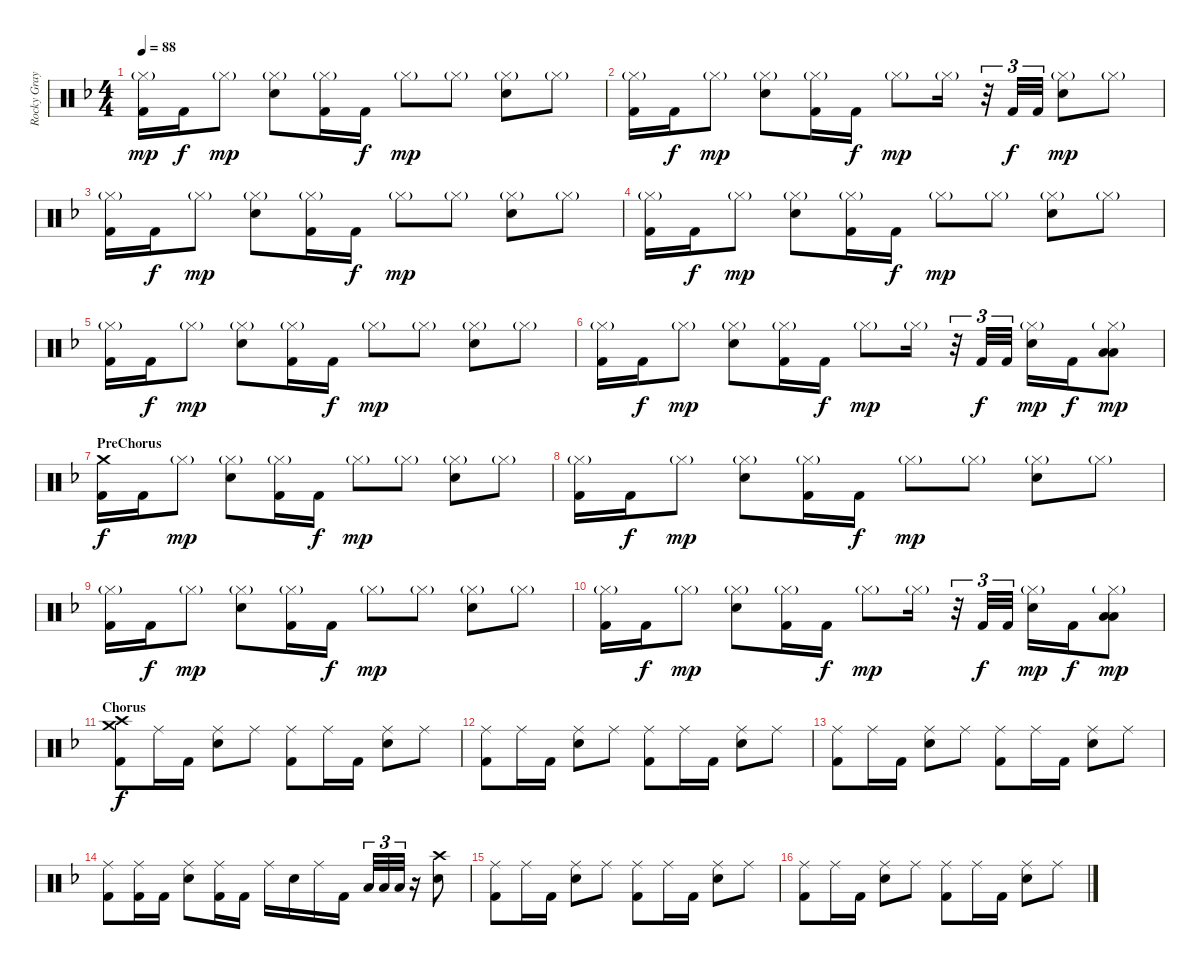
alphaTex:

\track ("Rocky Gray" "Rocky Gray") {instrument percussion}
\staff {score}
\articulation defaults
\ts (4 4)
\tempo 88
\clef neutral
\ks f
("Hi-Hat (closed)"{g} "Kick (hit) 2").16{dy mp} "Kick (hit) 2".16{dy f} "Hi-Hat (closed)"{g}.8{dy mp} ("Hi-Hat (closed)"{g} "Snare (hit) 2").8 ("Hi-Hat (closed)"{g} "Kick (hit) 2").16 "Kick (hit) 2".16{dy f} "Hi-Hat (closed)"{g}.8{dy mp} "Hi-Hat (closed)"{g}.8 ("Hi-Hat (closed)"{g} "Snare (hit) 2").8 "Hi-Hat (closed)"{g}.8 |
("Hi-Hat (closed)"{g} "Kick (hit) 2").16 "Kick (hit) 2".16{dy f} "Hi-Hat (closed)"{g}.8{dy mp} ("Hi-Hat (closed)"{g} "Snare (hit) 2").8 ("Hi-Hat (closed)"{g} "Kick (hit) 2").16 "Kick (hit) 2".16{dy f} "Hi-Hat (closed)"{g}.8{dy mp} "Hi-Hat (closed)"{g}.16 r.32{tu (3 2)} "Kick (hit) 2".32{tu (3 2) dy f} "Kick (hit) 2".32{tu (3 2)} ("Hi-Hat (closed)"{g} "Snare (hit) 2").8{dy mp} "Hi-Hat (closed)"{g}.8 |
("Hi-Hat (closed)"{g} "Kick (hit) 2").16 "Kick (hit) 2".16{dy f} "Hi-Hat (closed)"{g}.8{dy mp} ("Hi-Hat (closed)"{g} "Snare (hit) 2").8 ("Hi-Hat (closed)"{g} "Kick (hit) 2").16 "Kick (hit) 2".16{dy f} "Hi-Hat (closed)"{g}.8{dy mp} "Hi-Hat (closed)"{g}.8 ("Hi-Hat (closed)"{g} "Snare (hit) 2").8 "Hi-Hat (closed)"{g}.8 |
("Hi-Hat (closed)"{g} "Kick (hit) 2").16 "Kick (hit) 2".16{dy f} "Hi-Hat (closed)"{g}.8{dy mp} ("Hi-Hat (closed)"{g} "Snare (hit) 2").8 ("Hi-Hat (closed)"{g} "Kick (hit) 2").16 "Kick (hit) 2".16{dy f} "Hi-Hat (closed)"{g}.8{dy mp} "Hi-Hat (closed)"{g}.8 ("Hi-Hat (closed)"{g} "Snare (hit) 2").8 "Hi-Hat (closed)"{g}.8 |
("Hi-Hat (closed)"{g} "Kick (hit) 2").16 "Kick (hit) 2".16{dy f} "Hi-Hat (closed)"{g}.8{dy mp} ("Hi-Hat (closed)"{g} "Snare (hit) 2").8 ("Hi-Hat (closed)"{g} "Kick (hit) 2").16 "Kick (hit) 2".16{dy f} "Hi-Hat (closed)"{g}.8{dy mp} "Hi-Hat (closed)"{g}.8 ("Hi-Hat (closed)"{g} "Snare (hit) 2").8 "Hi-Hat (closed)"{g}.8 |
("Hi-Hat (closed)"{g} "Kick (hit) 2").16 "Kick (hit) 2".16{dy f} "Hi-Hat (closed)"{g}.8{dy mp} ("Hi-Hat (closed)"{g} "Snare (hit) 2").8 ("Hi-Hat (closed)"{g} "Kick (hit) 2").16 "Kick (hit) 2".16{dy f} "Hi-Hat (closed)"{g}.8{dy mp} "Hi-Hat (closed)"{g}.16 r.32{tu (3 2)} "Kick (hit) 2".32{tu (3 2) dy f} "Kick (hit) 2".32{tu (3 2)} ("Hi-Hat (closed)"{g} "Snare (hit) 2").16{dy mp} "Kick (hit) 2".16{dy f} ("Hi-Hat (closed)"{g} "Low Tom (hit)" "Low Floor Tom (hit)").8{dy mp} |
\section ("" "PreChorus")
("Crash medium (hit)" "Kick (hit) 2").16{dy f} "Kick (hit) 2".16 "Hi-Hat (closed)"{g}.8{dy mp} ("Hi-Hat (closed)"{g} "Snare (hit) 2").8 ("Hi-Hat (closed)"{g} "Kick (hit) 2").16 "Kick (hit) 2".16{dy f} "Hi-Hat (closed)"{g}.8{dy mp} "Hi-Hat (closed)"{g}.8 ("Hi-Hat (closed)"{g} "Snare (hit) 2").8 "Hi-Hat (closed)"{g}.8 |
("Hi-Hat (closed)"{g} "Kick (hit) 2").16 "Kick (hit) 2".16{dy f} "Hi-Hat (closed)"{g}.8{dy mp} ("Hi-Hat (closed)"{g} "Snare (hit) 2").8 ("Hi-Hat (closed)"{g} "Kick (hit) 2").16 "Kick (hit) 2".16{dy f} "Hi-Hat (closed)"{g}.8{dy mp} "Hi-Hat (closed)"{g}.8 ("Hi-Hat (closed)"{g} "Snare (hit) 2").8 "Hi-Hat (closed)"{g}.8 |
("Hi-Hat (closed)"{g} "Kick (hit) 2").16 "Kick (hit) 2".16{dy f} "Hi-Hat (closed)"{g}.8{dy mp} ("Hi-Hat (closed)"{g} "Snare (hit) 2").8 ("Hi-Hat (closed)"{g} "Kick (hit) 2").16 "Kick (hit) 2".16{dy f} "Hi-Hat (closed)"{g}.8{dy mp} "Hi-Hat (closed)"{g}.8 ("Hi-Hat (closed)"{g} "Snare (hit) 2").8 "Hi-Hat (closed)"{g}.8 |
("Hi-Hat (closed)"{g} "Kick (hit) 2").16 "Kick (hit) 2".16{dy f} "Hi-Hat (closed)"{g}.8{dy mp} ("Hi-Hat (closed)"{g} "Snare (hit) 2").8 ("Hi-Hat (closed)"{g} "Kick (hit) 2").16 "Kick (hit) 2".16{dy f} "Hi-Hat (closed)"{g}.8{dy mp} "Hi-Hat (closed)"{g}.16 r.32{tu (3 2)} "Kick (hit) 2".32{tu (3 2) dy f} "Kick (hit) 2".32{tu (3 2)} ("Hi-Hat (closed)"{g} "Snare (hit) 2").16{dy mp} "Kick (hit) 2".16{dy f} ("Hi-Hat (closed)"{g} "Low Tom (hit)" "Low Floor Tom (hit)").8{dy mp} |
\section ("" "Chorus")
("Crash high (hit)" "Crash medium (hit)" "Kick (hit) 2").8{dy f} "Ride (middle)".16 "Kick (hit) 2".16 ("Ride (middle)" "Snare (hit) 2").8 "Ride (middle)".8 ("Ride (middle)" "Kick (hit) 2").8 "Ride (middle)".16 "Kick (hit) 2".16 ("Ride (middle)" "Snare (hit) 2").8 "Ride (middle)".8 |
("Ride (middle)" "Kick (hit) 2").8 "Ride (middle)".16 "Kick (hit) 2".16 ("Ride (middle)" "Snare (hit) 2").8 "Ride (middle)".8 ("Ride (middle)" "Kick (hit) 2").8 "Ride (middle)".16 "Kick (hit) 2".16 ("Ride (middle)" "Snare (hit) 2").8 "Ride (middle)".8 |
("Ride (middle)" "Kick (hit) 2").8 "Ride (middle)".16 "Kick (hit) 2".16 ("Ride (middle)" "Snare (hit) 2").8 "Ride (middle)".8 ("Ride (middle)" "Kick (hit) 2").8 "Ride (middle)".16 "Kick (hit) 2".16 ("Ride (middle)" "Snare (hit) 2").8 "Ride (middle)".8 |
("Ride (middle)" "Kick (hit) 2").8 ("Ride (middle)" "Kick (hit) 2").16 "Kick (hit) 2".16 ("Ride (middle)" "Snare (hit) 2").8 ("Ride (middle)" "Kick (hit) 2").16 "Kick (hit) 2".16 "Ride (middle)".16 "Snare (hit) 2".16 "Ride (middle)".16 "Kick (hit) 2".16 "Low Floor Tom (hit)".32{tu (3 2)} "Low Floor Tom (hit)".32{tu (3 2)} "Low Floor Tom (hit)".32{tu (3 2)} r.16 ("Crash high (hit)" "Snare (hit) 2").8 |
("Ride (middle)" "Kick (hit) 2").8 "Ride (middle)".16 "Kick (hit) 2".16 ("Ride (middle)" "Snare (hit) 2").8 "Ride (middle)".8 ("Ride (middle)" "Kick (hit) 2").8 "Ride (middle)".16 "Kick (hit) 2".16 ("Ride (middle)" "Snare (hit) 2").8 "Ride (middle)".8 |
("Ride (middle)" "Kick (hit) 2").8 "Ride (middle)".16 "Kick (hit) 2".16 ("Ride (middle)" "Snare (hit) 2").8 "Ride (middle)".8 ("Ride (middle)" "Kick (hit) 2").8 "Ride (middle)".16 "Kick (hit) 2".16 ("Ride (middle)" "Snare (hit) 2").8 "Ride (middle)".8
